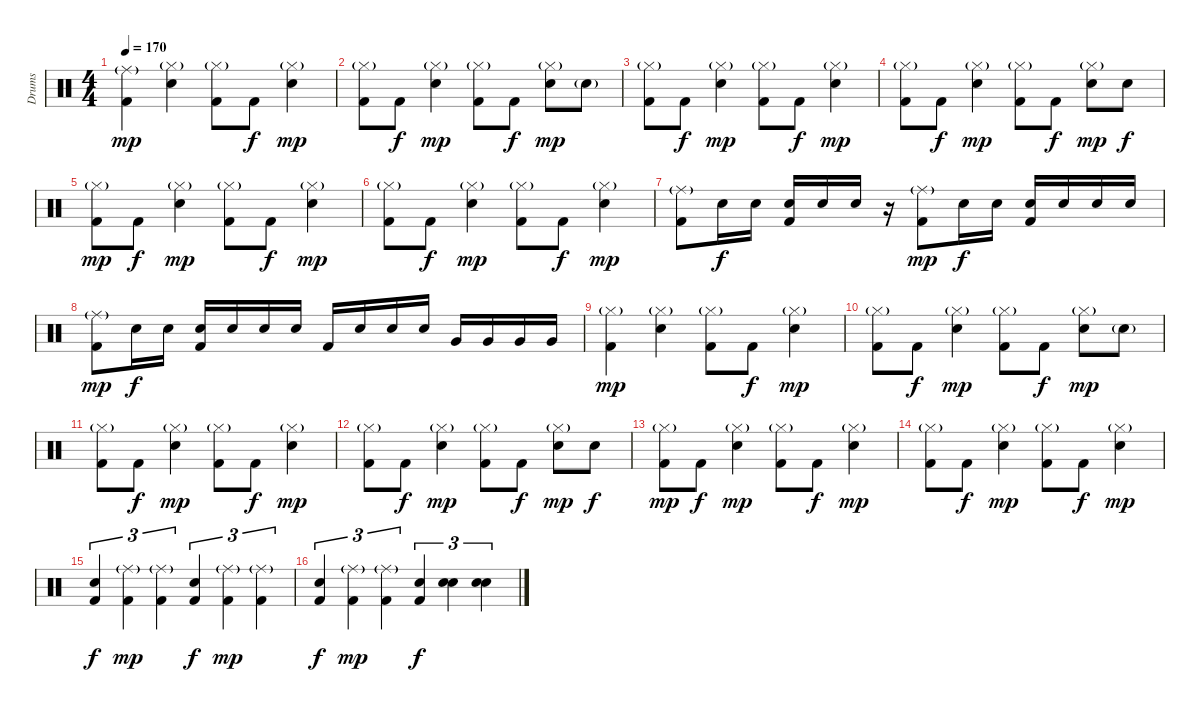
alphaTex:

\track ("Drums" "Drums") {instrument percussion}
\staff {score}
\articulation defaults
\ts (4 4)
\tempo 170
\clef neutral
\ks c
("Ride (middle)"{g} "Kick (hit) 2").4{dy mp} ("Hi-Hat (closed)"{g} "Electric Snare (hit)").4 ("Hi-Hat (closed)"{g} "Kick (hit) 2").8 "Kick (hit) 2".8{dy f} ("Hi-Hat (closed)"{g} "Electric Snare (hit)").4{dy mp} |
("Hi-Hat (closed)"{g} "Kick (hit) 2").8 "Kick (hit) 2".8{dy f} ("Hi-Hat (closed)"{g} "Electric Snare (hit)").4{dy mp} ("Hi-Hat (closed)"{g} "Kick (hit) 2").8 "Kick (hit) 2".8{dy f} ("Hi-Hat (closed)"{g} "Electric Snare (hit)").8{dy mp} "Electric Snare (hit)"{g}.8 |
("Hi-Hat (closed)"{g} "Kick (hit) 2").8 "Kick (hit) 2".8{dy f} ("Hi-Hat (closed)"{g} "Electric Snare (hit)").4{dy mp} ("Hi-Hat (closed)"{g} "Kick (hit) 2").8 "Kick (hit) 2".8{dy f} ("Hi-Hat (closed)"{g} "Electric Snare (hit)").4{dy mp} |
("Hi-Hat (closed)"{g} "Kick (hit) 2").8 "Kick (hit) 2".8{dy f} ("Hi-Hat (closed)"{g} "Electric Snare (hit)").4{dy mp} ("Hi-Hat (closed)"{g} "Kick (hit) 2").8 "Kick (hit) 2".8{dy f} ("Hi-Hat (closed)"{g} "Electric Snare (hit)").8{dy mp} "Electric Snare (hit)".8{dy f} |
("Hi-Hat (closed)"{g} "Kick (hit) 2").8{dy mp} "Kick (hit) 2".8{dy f} ("Hi-Hat (closed)"{g} "Electric Snare (hit)").4{dy mp} ("Hi-Hat (closed)"{g} "Kick (hit) 2").8 "Kick (hit) 2".8{dy f} ("Hi-Hat (closed)"{g} "Electric Snare (hit)").4{dy mp} |
("Hi-Hat (closed)"{g} "Kick (hit) 2").8 "Kick (hit) 2".8{dy f} ("Hi-Hat (closed)"{g} "Electric Snare (hit)").4{dy mp} ("Hi-Hat (closed)"{g} "Kick (hit) 2").8 "Kick (hit) 2".8{dy f} ("Hi-Hat (closed)"{g} "Electric Snare (hit)").4{dy mp} |
("Ride (middle)"{g} "Kick (hit) 2").8 "Electric Snare (hit)".16{dy f} "Electric Snare (hit)".16 ("Electric Snare (hit)" "Kick (hit) 2").16 "Electric Snare (hit)".16 "Electric Snare (hit)".16 r.16 ("Ride (middle)"{g} "Kick (hit) 2").8{dy mp} "Electric Snare (hit)".16{dy f} "Electric Snare (hit)".16 ("Electric Snare (hit)" "Kick (hit) 2").16 "Electric Snare (hit)".16 "Electric Snare (hit)".16 "Electric Snare (hit)".16 |
("Ride (middle)"{g} "Kick (hit) 2").8{dy mp} "Electric Snare (hit)".16{dy f} "Electric Snare (hit)".16 ("Electric Snare (hit)" "Kick (hit) 2").16 "Electric Snare (hit)".16 "Electric Snare (hit)".16 "Electric Snare (hit)".16 "Kick (hit) 2".16 "Electric Snare (hit)".16 "Electric Snare (hit)".16 "Electric Snare (hit)".16 "Very Low Tom (hit)".16 "Very Low Tom (hit)".16 "Very Low Tom (hit)".16 "Very Low Tom (hit)".16 |
("Hi-Hat (closed)"{g} "Kick (hit) 2").4{dy mp} ("Hi-Hat (closed)"{g} "Electric Snare (hit)").4 ("Hi-Hat (closed)"{g} "Kick (hit) 2").8 "Kick (hit) 2".8{dy f} ("Hi-Hat (closed)"{g} "Electric Snare (hit)").4{dy mp} |
("Hi-Hat (closed)"{g} "Kick (hit) 2").8 "Kick (hit) 2".8{dy f} ("Hi-Hat (closed)"{g} "Electric Snare (hit)").4{dy mp} ("Hi-Hat (closed)"{g} "Kick (hit) 2").8 "Kick (hit) 2".8{dy f} ("Hi-Hat (closed)"{g} "Electric Snare (hit)").8{dy mp} "Electric Snare (hit)"{g}.8 |
("Hi-Hat (closed)"{g} "Kick (hit) 2").8 "Kick (hit) 2".8{dy f} ("Hi-Hat (closed)"{g} "Electric Snare (hit)").4{dy mp} ("Hi-Hat (closed)"{g} "Kick (hit) 2").8 "Kick (hit) 2".8{dy f} ("Hi-Hat (closed)"{g} "Electric Snare (hit)").4{dy mp} |
("Hi-Hat (closed)"{g} "Kick (hit) 2").8 "Kick (hit) 2".8{dy f} ("Hi-Hat (closed)"{g} "Electric Snare (hit)").4{dy mp} ("Hi-Hat (closed)"{g} "Kick (hit) 2").8 "Kick (hit) 2".8{dy f} ("Hi-Hat (closed)"{g} "Electric Snare (hit)").8{dy mp} "Electric Snare (hit)".8{dy f} |
("Hi-Hat (closed)"{g} "Kick (hit) 2").8{dy mp} "Kick (hit) 2".8{dy f} ("Hi-Hat (closed)"{g} "Electric Snare (hit)").4{dy mp} ("Hi-Hat (closed)"{g} "Kick (hit) 2").8 "Kick (hit) 2".8{dy f} ("Hi-Hat (closed)"{g} "Electric Snare (hit)").4{dy mp} |
("Hi-Hat (closed)"{g} "Kick (hit) 2").8 "Kick (hit) 2".8{dy f} ("Hi-Hat (closed)"{g} "Electric Snare (hit)").4{dy mp} ("Hi-Hat (closed)"{g} "Kick (hit) 2").8 "Kick (hit) 2".8{dy f} ("Hi-Hat (closed)"{g} "Electric Snare (hit)").4{dy mp} |
("Electric Snare (hit)" "Kick (hit) 2").4{tu (3 2) dy f} ("Ride (middle)"{g} "Kick (hit) 2").4{tu (3 2) dy mp} ("Ride (middle)"{g} "Kick (hit) 2").4{tu (3 2)} ("Electric Snare (hit)" "Kick (hit) 2").4{tu (3 2) dy f} ("Ride (middle)"{g} "Kick (hit) 2").4{tu (3 2) dy mp} ("Ride (middle)"{g} "Kick (hit) 2").4{tu (3 2)} |
("Electric Snare (hit)" "Kick (hit) 2").4{tu (3 2) dy f} ("Ride (middle)"{g} "Kick (hit) 2").4{tu (3 2) dy mp} ("Ride (middle)"{g} "Kick (hit) 2").4{tu (3 2)} ("Electric Snare (hit)" "Kick (hit) 2").4{tu (3 2) dy f} ("Electric Snare (hit)" "Electric Snare (hit)").4{tu (3 2)} ("Electric Snare (hit)" "Electric Snare (hit)").4{tu (3 2)}
